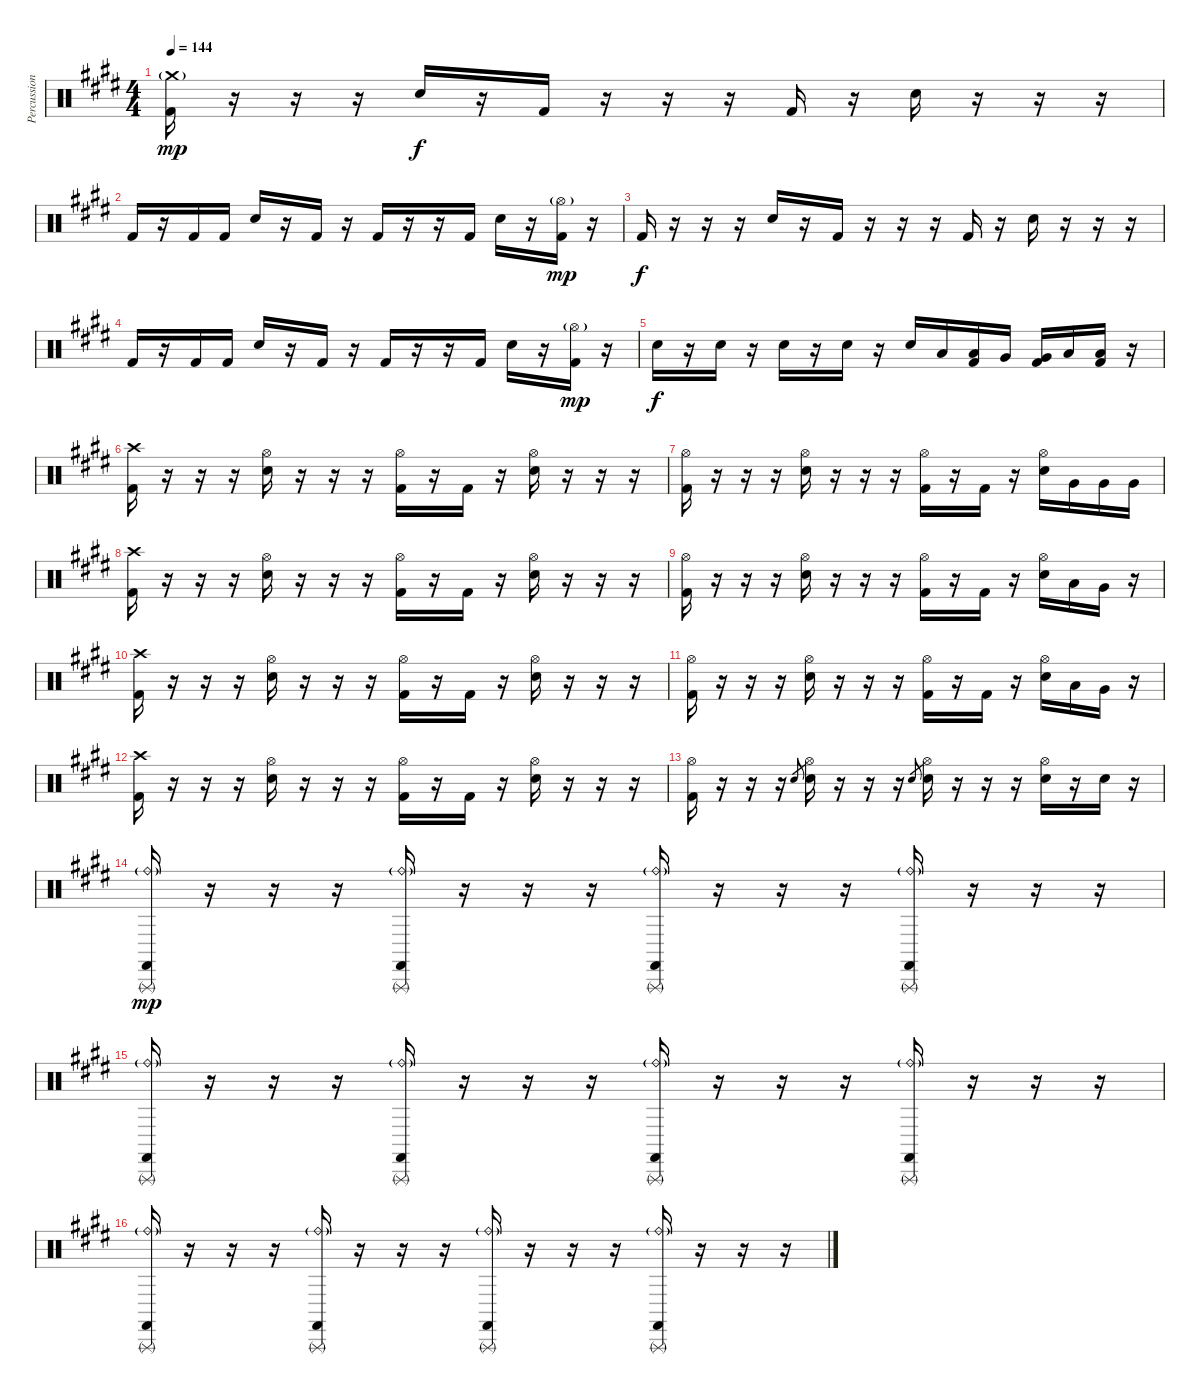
\track ("Percussion" "Percussion") {instrument percussion}
\staff {score}
\articulation defaults
\ts (4 4)
\tempo 144
\clef neutral
\ks e
("Crash medium (hit)"{g} "Kick (hit) 2").16{dy mp} r.16 r.16 r.16 "Snare (hit) 2".16{dy f} r.16 "Kick (hit) 2".16 r.16 r.16 r.16 "Kick (hit) 2".16 r.16 "Snare (hit) 2".16 r.16 r.16 r.16 |
"Kick (hit) 2".16 r.16 "Kick (hit) 2".16 "Kick (hit) 2".16 "Snare (hit) 2".16 r.16 "Kick (hit) 2".16 r.16 "Kick (hit) 2".16 r.16 r.16 "Kick (hit) 2".16 "Snare (hit) 2".16 r.16 ("Hi-Hat (open)"{g} "Kick (hit) 2").16{dy mp} r.16 |
"Kick (hit) 2".16{dy f} r.16 r.16 r.16 "Snare (hit) 2".16 r.16 "Kick (hit) 2".16 r.16 r.16 r.16 "Kick (hit) 2".16 r.16 "Snare (hit) 2".16 r.16 r.16 r.16 |
"Kick (hit) 2".16 r.16 "Kick (hit) 2".16 "Kick (hit) 2".16 "Snare (hit) 2".16 r.16 "Kick (hit) 2".16 r.16 "Kick (hit) 2".16 r.16 r.16 "Kick (hit) 2".16 "Snare (hit) 2".16 r.16 ("Hi-Hat (open)"{g} "Kick (hit) 2").16{dy mp} r.16 |
"Snare (hit) 2".16{dy f} r.16 "Snare (hit) 2".16 r.16 "Snare (hit) 2".16 r.16 "Snare (hit) 2".16 r.16 "Snare (hit) 2".16 "Low Tom (hit)".16 ("Low Tom (hit)" "Kick (hit) 2").16 "Very Low Tom (hit)".16 ("Very Low Tom (hit)" "Kick (hit) 2").16 "Low Floor Tom (hit)".16 ("Low Floor Tom (hit)" "Kick (hit) 2").16 r.16 |
("Crash high (hit)" "Kick (hit) 2").16 r.16 r.16 r.16 ("Hi-Hat (open)" "Snare (hit) 2").16 r.16 r.16 r.16 ("Hi-Hat (open)" "Kick (hit) 2").16 r.16 "Kick (hit) 2".16 r.16 ("Hi-Hat (open)" "Snare (hit) 2").16 r.16 r.16 r.16 |
("Hi-Hat (open)" "Kick (hit) 2").16 r.16 r.16 r.16 ("Hi-Hat (open)" "Snare (hit) 2").16 r.16 r.16 r.16 ("Hi-Hat (open)" "Kick (hit) 2").16 r.16 "Kick (hit) 2".16 r.16 ("Hi-Hat (open)" "Snare (hit) 2").16 "Very Low Tom (hit)".16 "Very Low Tom (hit)".16 "Very Low Tom (hit)".16 |
("Crash high (hit)" "Kick (hit) 2").16 r.16 r.16 r.16 ("Hi-Hat (open)" "Snare (hit) 2").16 r.16 r.16 r.16 ("Hi-Hat (open)" "Kick (hit) 2").16 r.16 "Kick (hit) 2".16 r.16 ("Hi-Hat (open)" "Snare (hit) 2").16 r.16 r.16 r.16 |
("Hi-Hat (open)" "Kick (hit) 2").16 r.16 r.16 r.16 ("Hi-Hat (open)" "Snare (hit) 2").16 r.16 r.16 r.16 ("Hi-Hat (open)" "Kick (hit) 2").16 r.16 "Kick (hit) 2".16 r.16 ("Hi-Hat (open)" "Snare (hit) 2").16 "Low Tom (hit)".16 "Very Low Tom (hit)".16 r.16 |
("Crash high (hit)" "Kick (hit) 2").16 r.16 r.16 r.16 ("Hi-Hat (open)" "Snare (hit) 2").16 r.16 r.16 r.16 ("Hi-Hat (open)" "Kick (hit) 2").16 r.16 "Kick (hit) 2".16 r.16 ("Hi-Hat (open)" "Snare (hit) 2").16 r.16 r.16 r.16 |
("Hi-Hat (open)" "Kick (hit) 2").16 r.16 r.16 r.16 ("Hi-Hat (open)" "Snare (hit) 2").16 r.16 r.16 r.16 ("Hi-Hat (open)" "Kick (hit) 2").16 r.16 "Kick (hit) 2".16 r.16 ("Hi-Hat (open)" "Snare (hit) 2").16 "Low Tom (hit)".16 "Very Low Tom (hit)".16 r.16 |
("Crash high (hit)" "Kick (hit) 2").16 r.16 r.16 r.16 ("Hi-Hat (open)" "Snare (hit) 2").16 r.16 r.16 r.16 ("Hi-Hat (open)" "Kick (hit) 2").16 r.16 "Kick (hit) 2".16 r.16 ("Hi-Hat (open)" "Snare (hit) 2").16 r.16 r.16 r.16 |
("Hi-Hat (open)" "Kick (hit) 2").16 r.16 r.16 r.16 "Snare (hit) 2".8{gr} ("Hi-Hat (open)" "Snare (hit) 2").16 r.16 r.16 r.16 "Snare (hit) 2".8{gr} ("Hi-Hat (open)" "Snare (hit) 2").16 r.16 r.16 r.16 ("Hi-Hat (open)" "Snare (hit) 2").16 r.16 "Snare (hit) 2".16 r.16 |
("Ride (bell)"{g} "Triangle (rnute)" "Castanets (hit)").16{dy mp} r.16 r.16 r.16 ("Ride (bell)"{g} "Triangle (rnute)" "Castanets (hit)").16 r.16 r.16 r.16 ("Ride (bell)"{g} "Triangle (rnute)" "Castanets (hit)").16 r.16 r.16 r.16 ("Ride (bell)"{g} "Triangle (rnute)" "Castanets (hit)").16 r.16 r.16 r.16 |
("Ride (bell)"{g} "Triangle (rnute)" "Castanets (hit)").16 r.16 r.16 r.16 ("Ride (bell)"{g} "Triangle (rnute)" "Castanets (hit)").16 r.16 r.16 r.16 ("Ride (bell)"{g} "Triangle (rnute)" "Castanets (hit)").16 r.16 r.16 r.16 ("Ride (bell)"{g} "Triangle (rnute)" "Castanets (hit)").16 r.16 r.16 r.16 |
("Ride (bell)"{g} "Triangle (rnute)" "Castanets (hit)").16 r.16 r.16 r.16 ("Ride (bell)"{g} "Triangle (rnute)" "Castanets (hit)").16 r.16 r.16 r.16 ("Ride (bell)"{g} "Triangle (rnute)" "Castanets (hit)").16 r.16 r.16 r.16 ("Ride (bell)"{g} "Triangle (rnute)" "Castanets (hit)").16 r.16 r.16 r.16
